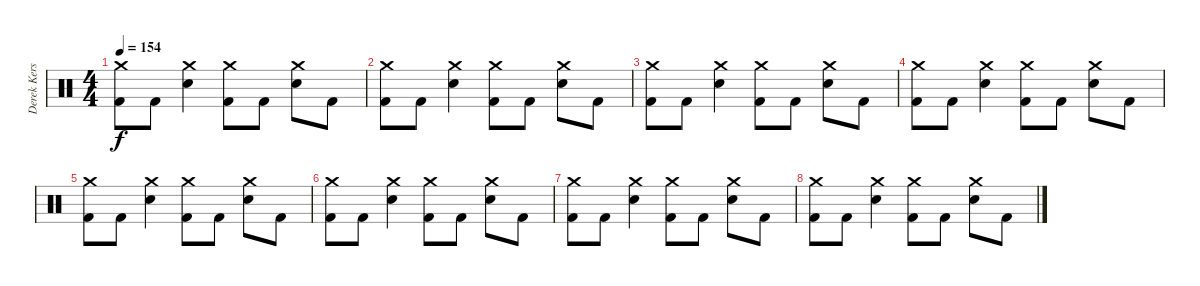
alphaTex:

\track ("Derek Kerswill" "Derek Kers") {instrument percussion}
\staff {score}
\articulation defaults
\ts (4 4)
\tempo 154
\clef neutral
\ks c
("Crash medium (hit)" "Kick (hit) 2").8{dy f} "Kick (hit) 2".8 ("Crash medium (hit)" "Electric Snare (hit)").4 ("Crash medium (hit)" "Kick (hit) 2").8 "Kick (hit) 2".8 ("Crash medium (hit)" "Electric Snare (hit)").8 "Kick (hit) 2".8 |
("Crash medium (hit)" "Kick (hit) 2").8 "Kick (hit) 2".8 ("Crash medium (hit)" "Electric Snare (hit)").4 ("Crash medium (hit)" "Kick (hit) 2").8 "Kick (hit) 2".8 ("Crash medium (hit)" "Electric Snare (hit)").8 "Kick (hit) 2".8 |
("Crash medium (hit)" "Kick (hit) 2").8 "Kick (hit) 2".8 ("Crash medium (hit)" "Electric Snare (hit)").4 ("Crash medium (hit)" "Kick (hit) 2").8 "Kick (hit) 2".8 ("Crash medium (hit)" "Electric Snare (hit)").8 "Kick (hit) 2".8 |
("Crash medium (hit)" "Kick (hit) 2").8 "Kick (hit) 2".8 ("Crash medium (hit)" "Electric Snare (hit)").4 ("Crash medium (hit)" "Kick (hit) 2").8 "Kick (hit) 2".8 ("Crash medium (hit)" "Electric Snare (hit)").8 "Kick (hit) 2".8 |
("Crash medium (hit)" "Kick (hit) 2").8 "Kick (hit) 2".8 ("Crash medium (hit)" "Electric Snare (hit)").4 ("Crash medium (hit)" "Kick (hit) 2").8 "Kick (hit) 2".8 ("Crash medium (hit)" "Electric Snare (hit)").8 "Kick (hit) 2".8 |
("Crash medium (hit)" "Kick (hit) 2").8 "Kick (hit) 2".8 ("Crash medium (hit)" "Electric Snare (hit)").4 ("Crash medium (hit)" "Kick (hit) 2").8 "Kick (hit) 2".8 ("Crash medium (hit)" "Electric Snare (hit)").8 "Kick (hit) 2".8 |
("Crash medium (hit)" "Kick (hit) 2").8 "Kick (hit) 2".8 ("Crash medium (hit)" "Electric Snare (hit)").4 ("Crash medium (hit)" "Kick (hit) 2").8 "Kick (hit) 2".8 ("Crash medium (hit)" "Electric Snare (hit)").8 "Kick (hit) 2".8 |
("Crash medium (hit)" "Kick (hit) 2").8 "Kick (hit) 2".8 ("Crash medium (hit)" "Electric Snare (hit)").4 ("Crash medium (hit)" "Kick (hit) 2").8 "Kick (hit) 2".8 ("Crash medium (hit)" "Electric Snare (hit)").8 "Kick (hit) 2".8
